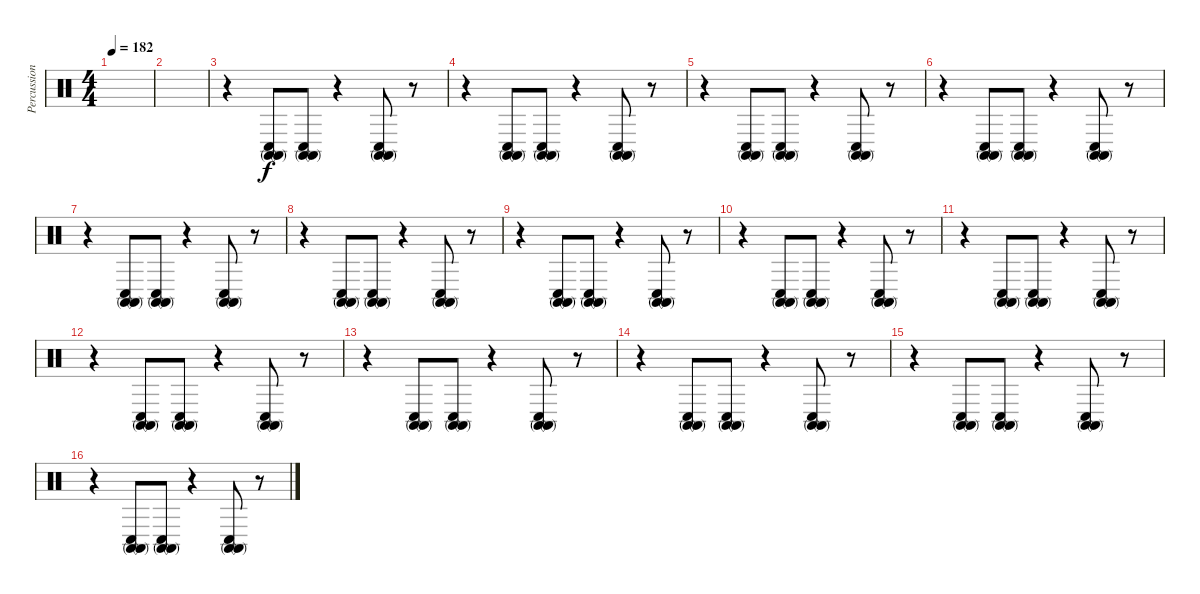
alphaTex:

\track ("Percussion" "Percussion") {instrument percussion}
\staff {score}
\articulation defaults
\ts (4 4)
\tempo 182
\clef neutral
\ks c
|
|
r.4 ("Conga high (mute)" "Conga high (mute)" "Conga low (hit)").8 ("Conga high (mute)" "Conga high (mute)" "Conga low (hit)").8 r.4 ("Conga high (mute)" "Conga high (mute)" "Conga low (hit)").8 r.8 |
r.4 ("Conga high (mute)" "Conga high (mute)" "Conga low (hit)").8{dy f} ("Conga high (mute)" "Conga high (mute)" "Conga low (hit)").8 r.4 ("Conga high (mute)" "Conga high (mute)" "Conga low (hit)").8 r.8 |
r.4 ("Conga high (mute)" "Conga high (mute)" "Conga low (hit)").8 ("Conga high (mute)" "Conga high (mute)" "Conga low (hit)").8 r.4 ("Conga high (mute)" "Conga high (mute)" "Conga low (hit)").8 r.8 |
r.4 ("Conga high (mute)" "Conga high (mute)" "Conga low (hit)").8 ("Conga high (mute)" "Conga high (mute)" "Conga low (hit)").8 r.4 ("Conga high (mute)" "Conga high (mute)" "Conga low (hit)").8 r.8 |
r.4 ("Conga high (mute)" "Conga high (mute)" "Conga low (hit)").8 ("Conga high (mute)" "Conga high (mute)" "Conga low (hit)").8 r.4 ("Conga high (mute)" "Conga high (mute)" "Conga low (hit)").8 r.8 |
r.4 ("Conga high (mute)" "Conga high (mute)" "Conga low (hit)").8 ("Conga high (mute)" "Conga high (mute)" "Conga low (hit)").8 r.4 ("Conga high (mute)" "Conga high (mute)" "Conga low (hit)").8 r.8 |
r.4 ("Conga high (mute)" "Conga high (mute)" "Conga low (hit)").8 ("Conga high (mute)" "Conga high (mute)" "Conga low (hit)").8 r.4 ("Conga high (mute)" "Conga high (mute)" "Conga low (hit)").8 r.8 |
r.4 ("Conga high (mute)" "Conga high (mute)" "Conga low (hit)").8 ("Conga high (mute)" "Conga high (mute)" "Conga low (hit)").8 r.4 ("Conga high (mute)" "Conga high (mute)" "Conga low (hit)").8 r.8 |
r.4 ("Conga high (mute)" "Conga high (mute)" "Conga low (hit)").8 ("Conga high (mute)" "Conga high (mute)" "Conga low (hit)").8 r.4 ("Conga high (mute)" "Conga high (mute)" "Conga low (hit)").8 r.8 |
r.4 ("Conga high (mute)" "Conga high (mute)" "Conga low (hit)").8 ("Conga high (mute)" "Conga high (mute)" "Conga low (hit)").8 r.4 ("Conga high (mute)" "Conga high (mute)" "Conga low (hit)").8 r.8 |
r.4 ("Conga high (mute)" "Conga high (mute)" "Conga low (hit)").8 ("Conga high (mute)" "Conga high (mute)" "Conga low (hit)").8 r.4 ("Conga high (mute)" "Conga high (mute)" "Conga low (hit)").8 r.8 |
r.4 ("Conga high (mute)" "Conga high (mute)" "Conga low (hit)").8 ("Conga high (mute)" "Conga high (mute)" "Conga low (hit)").8 r.4 ("Conga high (mute)" "Conga high (mute)" "Conga low (hit)").8 r.8 |
r.4 ("Conga high (mute)" "Conga high (mute)" "Conga low (hit)").8 ("Conga high (mute)" "Conga high (mute)" "Conga low (hit)").8 r.4 ("Conga high (mute)" "Conga high (mute)" "Conga low (hit)").8 r.8 |
r.4 ("Conga high (mute)" "Conga high (mute)" "Conga low (hit)").8 ("Conga high (mute)" "Conga high (mute)" "Conga low (hit)").8 r.4 ("Conga high (mute)" "Conga high (mute)" "Conga low (hit)").8 r.8
